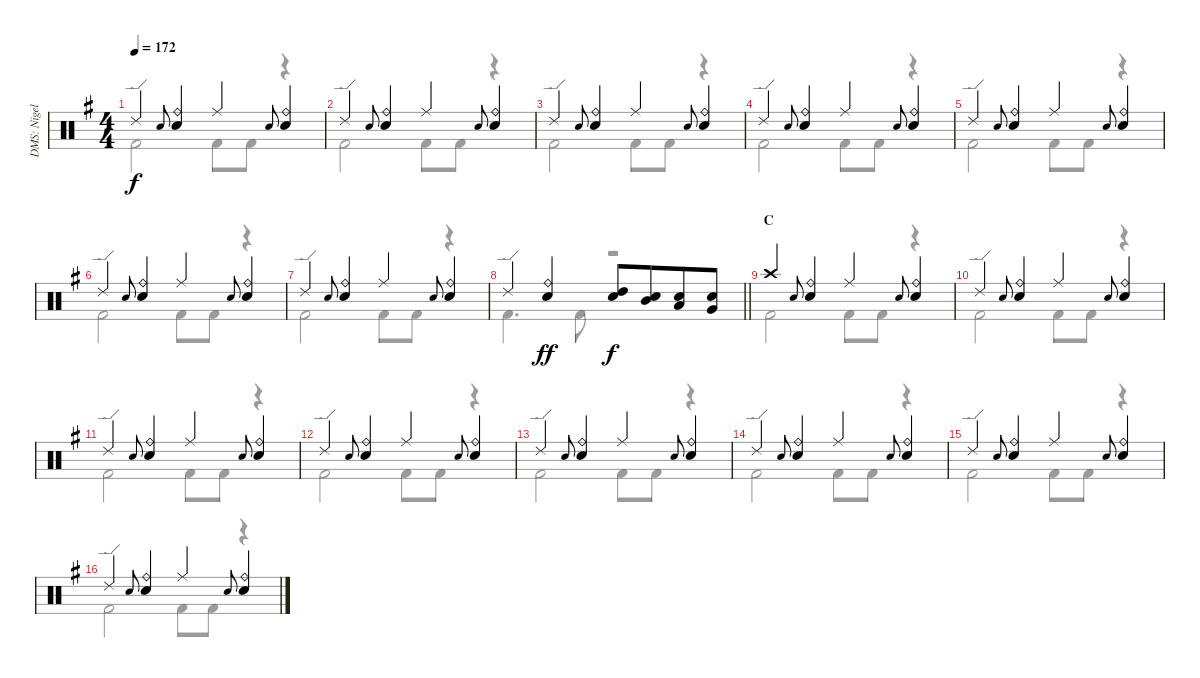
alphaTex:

\track ("DMS: Nigel Olsson" "DMS: Nigel") {instrument percussion}
\staff {score}
\articulation defaults
\voice
\ts (4 4)
\tempo 172
\clef neutral
\ks g "Ride (edge) 2".4{dy f} "Snare (hit) 2".8{gr onbeat}
("Ride (bell)" "Electric Snare (hit)").4 "Ride (middle)".4 "Snare (hit) 2".8{gr onbeat} ("Ride (bell)" "Electric Snare (hit)").4 |
"Ride (edge) 2".4 "Snare (hit) 2".8{gr onbeat} ("Ride (bell)" "Electric Snare (hit)").4 "Ride (middle)".4 "Snare (hit) 2".8{gr onbeat} ("Ride (bell)" "Electric Snare (hit)").4 |
"Ride (edge) 2".4 "Snare (hit) 2".8{gr onbeat} ("Ride (bell)" "Electric Snare (hit)").4 "Ride (middle)".4 "Snare (hit) 2".8{gr onbeat} ("Ride (bell)" "Electric Snare (hit)").4 |
"Ride (edge) 2".4 "Snare (hit) 2".8{gr onbeat} ("Ride (bell)" "Electric Snare (hit)").4 "Ride (middle)".4 "Snare (hit) 2".8{gr onbeat} ("Ride (bell)" "Electric Snare (hit)").4 |
"Ride (edge) 2".4 "Snare (hit) 2".8{gr onbeat} ("Ride (bell)" "Electric Snare (hit)").4 "Ride (middle)".4 "Snare (hit) 2".8{gr onbeat} ("Ride (bell)" "Electric Snare (hit)").4 |
"Ride (edge) 2".4 "Snare (hit) 2".8{gr onbeat} ("Ride (bell)" "Electric Snare (hit)").4 "Ride (middle)".4 "Snare (hit) 2".8{gr onbeat} ("Ride (bell)" "Electric Snare (hit)").4 |
"Ride (edge) 2".4 "Snare (hit) 2".8{gr onbeat} ("Ride (bell)" "Electric Snare (hit)").4 "Ride (middle)".4 "Snare (hit) 2".8{gr onbeat} ("Ride (bell)" "Electric Snare (hit)").4 |
\barLineRight lightlight "Ride (edge) 2".4
("Ride (bell)" "Electric Snare (hit)").4{dy ff} ("Electric Snare (hit)" "High Tom (hit)").8{dy f} ("Electric Snare (hit)" "Mid Tom (hit)").8{beam merge} ("Electric Snare (hit)" "Low Tom (hit)").8 ("Electric Snare (hit)" "Very Low Tom (hit)").8 |
\section ("" "C")
"Crash high (hit)".4 "Snare (hit) 2".8{gr onbeat} ("Ride (bell)" "Electric Snare (hit)").4 "Ride (middle)".4 "Snare (hit) 2".8{gr onbeat} ("Ride (bell)" "Electric Snare (hit)").4 |
"Ride (edge) 2".4 "Snare (hit) 2".8{gr onbeat} ("Ride (bell)" "Electric Snare (hit)").4 "Ride (middle)".4 "Snare (hit) 2".8{gr onbeat} ("Ride (bell)" "Electric Snare (hit)").4 |
"Ride (edge) 2".4 "Snare (hit) 2".8{gr onbeat} ("Ride (bell)" "Electric Snare (hit)").4 "Ride (middle)".4 "Snare (hit) 2".8{gr onbeat} ("Ride (bell)" "Electric Snare (hit)").4 |
"Ride (edge) 2".4 "Snare (hit) 2".8{gr onbeat} ("Ride (bell)" "Electric Snare (hit)").4 "Ride (middle)".4 "Snare (hit) 2".8{gr onbeat} ("Ride (bell)" "Electric Snare (hit)").4 |
"Ride (edge) 2".4 "Snare (hit) 2".8{gr onbeat} ("Ride (bell)" "Electric Snare (hit)").4 "Ride (middle)".4 "Snare (hit) 2".8{gr onbeat} ("Ride (bell)" "Electric Snare (hit)").4 |
"Ride (edge) 2".4 "Snare (hit) 2".8{gr onbeat} ("Ride (bell)" "Electric Snare (hit)").4 "Ride (middle)".4 "Snare (hit) 2".8{gr onbeat} ("Ride (bell)" "Electric Snare (hit)").4 |
"Ride (edge) 2".4 "Snare (hit) 2".8{gr onbeat} ("Ride (bell)" "Electric Snare (hit)").4 "Ride (middle)".4 "Snare (hit) 2".8{gr onbeat} ("Ride (bell)" "Electric Snare (hit)").4 |
"Ride (edge) 2".4 "Snare (hit) 2".8{gr onbeat} ("Ride (bell)" "Electric Snare (hit)").4 "Ride (middle)".4 "Snare (hit) 2".8{gr onbeat} ("Ride (bell)" "Electric Snare (hit)").4
\voice
\clef neutral
\ottava regular
\simile none
\ks g "Kick (hit) 2".2{dy f} "Kick (hit) 2".8 "Kick (hit) 2".8
r.4 |
"Kick (hit) 2".2 "Kick (hit) 2".8 "Kick (hit) 2".8 r.4 |
"Kick (hit) 2".2 "Kick (hit) 2".8 "Kick (hit) 2".8 r.4 |
"Kick (hit) 2".2 "Kick (hit) 2".8 "Kick (hit) 2".8 r.4 |
"Kick (hit) 2".2 "Kick (hit) 2".8 "Kick (hit) 2".8 r.4 |
"Kick (hit) 2".2 "Kick (hit) 2".8 "Kick (hit) 2".8 r.4 |
"Kick (hit) 2".2 "Kick (hit) 2".8 "Kick (hit) 2".8 r.4 |
\barLineRight lightlight "Kick (hit) 2".4{d} "Kick (hit) 2".8
r.2 |
"Kick (hit) 2".2 "Kick (hit) 2".8 "Kick (hit) 2".8 r.4 |
"Kick (hit) 2".2 "Kick (hit) 2".8 "Kick (hit) 2".8 r.4 |
"Kick (hit) 2".2 "Kick (hit) 2".8 "Kick (hit) 2".8 r.4 |
"Kick (hit) 2".2 "Kick (hit) 2".8 "Kick (hit) 2".8 r.4 |
"Kick (hit) 2".2 "Kick (hit) 2".8 "Kick (hit) 2".8 r.4 |
"Kick (hit) 2".2 "Kick (hit) 2".8 "Kick (hit) 2".8 r.4 |
"Kick (hit) 2".2 "Kick (hit) 2".8 "Kick (hit) 2".8 r.4 |
"Kick (hit) 2".2 "Kick (hit) 2".8 "Kick (hit) 2".8 r.4
